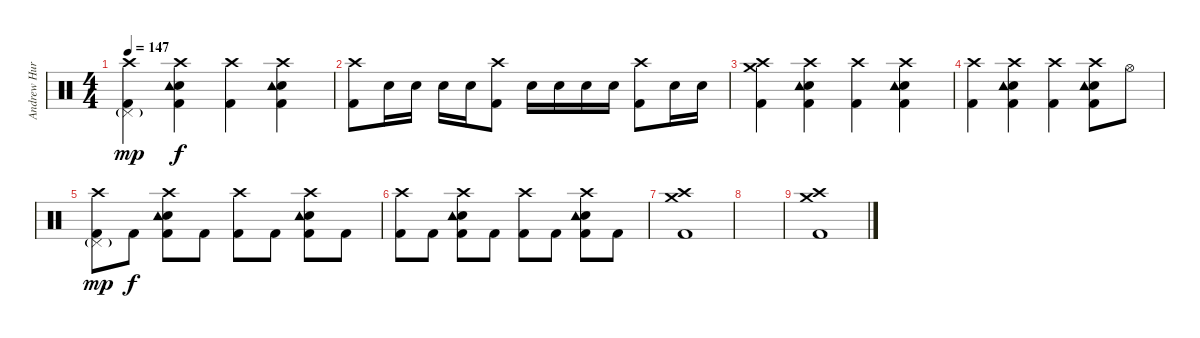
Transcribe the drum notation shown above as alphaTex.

\track ("Andrew Hurley (Drums)" "Andrew Hur") {instrument percussion}
\staff {score}
\articulation defaults
\ts (4 4)
\tempo 147
\clef neutral
\ks c
("Crash high (hit)" "Pedal Hi-Hat (hit)"{g} "Kick (hit) 2").4{dy mp} ("Crash high (hit)" "Snare (hit) 2" "Kick (hit) 2" "Tambourine (hit)").4{dy f} ("Crash high (hit)" "Kick (hit) 2").4 ("Crash high (hit)" "Snare (hit) 2" "Kick (hit) 2" "Tambourine (hit)").4 |
("Crash high (hit)" "Kick (hit) 2").8 "Snare (hit) 2".16 "Snare (hit) 2".16 "Snare (hit) 2".16 "Snare (hit) 2".16 ("Crash high (hit)" "Kick (hit) 2").8 "Snare (hit) 2".16 "Snare (hit) 2".16 "Snare (hit) 2".16 "Snare (hit) 2".16 ("Crash high (hit)" "Kick (hit) 2").8 "Snare (hit) 2".16 "Snare (hit) 2".16 |
("Crash high (hit)" "Crash medium (hit)" "Kick (hit) 2").4 ("Crash high (hit)" "Snare (hit) 2" "Kick (hit) 2" "Tambourine (hit)").4 ("Crash high (hit)" "Kick (hit) 2").4 ("Crash high (hit)" "Snare (hit) 2" "Kick (hit) 2" "Tambourine (hit)").4 |
("Crash high (hit)" "Kick (hit) 2").4 ("Crash high (hit)" "Snare (hit) 2" "Kick (hit) 2" "Tambourine (hit)").4 ("Crash high (hit)" "Kick (hit) 2").4 ("Crash high (hit)" "Snare (hit) 2" "Kick (hit) 2" "Tambourine (hit)").8 "Hi-Hat (open)".8 |
("Crash high (hit)" "Pedal Hi-Hat (hit)"{g} "Kick (hit) 2").8{dy mp} "Kick (hit) 2".8{dy f} ("Crash high (hit)" "Snare (hit) 2" "Kick (hit) 2" "Tambourine (hit)").8 "Kick (hit) 2".8 ("Crash high (hit)" "Kick (hit) 2").8 "Kick (hit) 2".8 ("Crash high (hit)" "Snare (hit) 2" "Kick (hit) 2" "Tambourine (hit)").8 "Kick (hit) 2".8 |
("Crash high (hit)" "Kick (hit) 2").8 "Kick (hit) 2".8 ("Crash high (hit)" "Snare (hit) 2" "Kick (hit) 2" "Tambourine (hit)").8 "Kick (hit) 2".8 ("Crash high (hit)" "Kick (hit) 2").8 "Kick (hit) 2".8 ("Crash high (hit)" "Snare (hit) 2" "Kick (hit) 2" "Tambourine (hit)").8 "Kick (hit) 2".8 |
("Crash high (hit)" "Crash medium (hit)" "Kick (hit) 2").1 |
|
("Crash high (hit)" "Crash medium (hit)" "Kick (hit) 2").1
